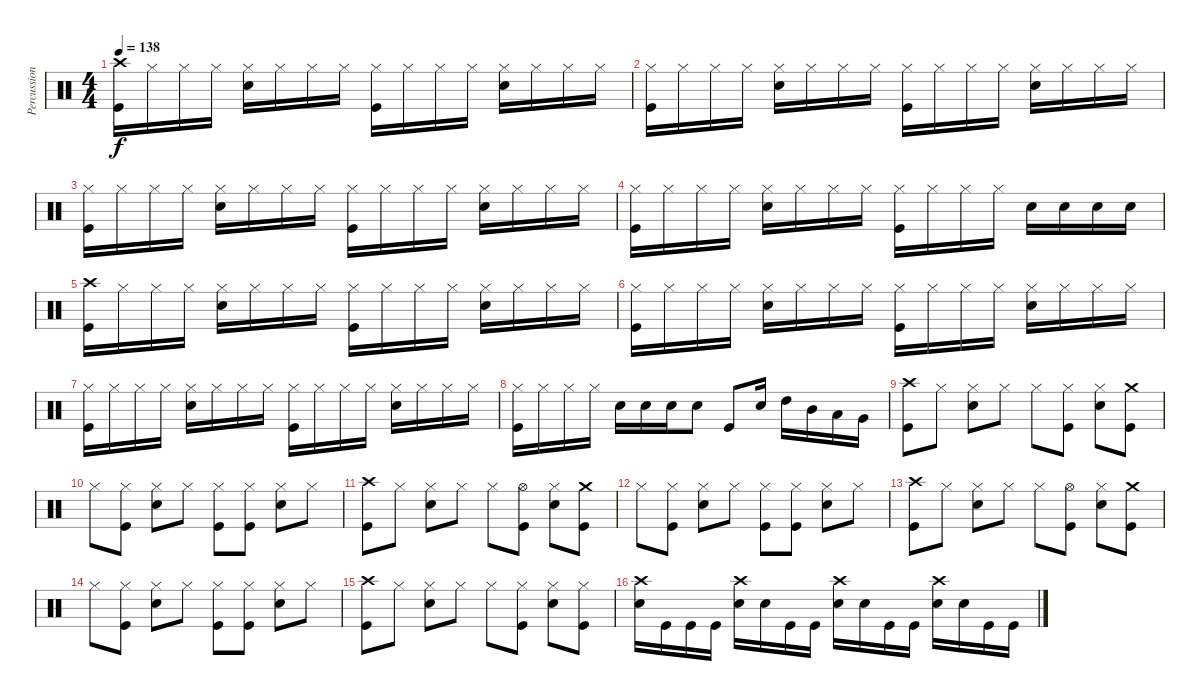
\track ("Percussion" "Percussion") {instrument percussion}
\staff {score}
\articulation defaults
\ts (4 4)
\tempo 138
\clef neutral
\ks c
("Kick (hit)" "Crash high (hit)").16{dy f} "Hi-Hat (closed)".16 "Hi-Hat (closed)".16 "Hi-Hat (closed)".16 ("Snare (hit) 2" "Hi-Hat (closed)").16 "Hi-Hat (closed)".16 "Hi-Hat (closed)".16 "Hi-Hat (closed)".16 ("Kick (hit)" "Hi-Hat (closed)").16 "Hi-Hat (closed)".16 "Hi-Hat (closed)".16 "Hi-Hat (closed)".16 ("Snare (hit) 2" "Hi-Hat (closed)").16 "Hi-Hat (closed)".16 "Hi-Hat (closed)".16 "Hi-Hat (closed)".16 |
("Kick (hit)" "Hi-Hat (closed)").16 "Hi-Hat (closed)".16 "Hi-Hat (closed)".16 "Hi-Hat (closed)".16 ("Snare (hit) 2" "Hi-Hat (closed)").16 "Hi-Hat (closed)".16 "Hi-Hat (closed)".16 "Hi-Hat (closed)".16 ("Kick (hit)" "Hi-Hat (closed)").16 "Hi-Hat (closed)".16 "Hi-Hat (closed)".16 "Hi-Hat (closed)".16 ("Snare (hit) 2" "Hi-Hat (closed)").16 "Hi-Hat (closed)".16 "Hi-Hat (closed)".16 "Hi-Hat (closed)".16 |
("Kick (hit)" "Hi-Hat (closed)").16 "Hi-Hat (closed)".16 "Hi-Hat (closed)".16 "Hi-Hat (closed)".16 ("Snare (hit) 2" "Hi-Hat (closed)").16 "Hi-Hat (closed)".16 "Hi-Hat (closed)".16 "Hi-Hat (closed)".16 ("Kick (hit)" "Hi-Hat (closed)").16 "Hi-Hat (closed)".16 "Hi-Hat (closed)".16 "Hi-Hat (closed)".16 ("Snare (hit) 2" "Hi-Hat (closed)").16 "Hi-Hat (closed)".16 "Hi-Hat (closed)".16 "Hi-Hat (closed)".16 |
("Kick (hit)" "Hi-Hat (closed)").16 "Hi-Hat (closed)".16 "Hi-Hat (closed)".16 "Hi-Hat (closed)".16 ("Snare (hit) 2" "Hi-Hat (closed)").16 "Hi-Hat (closed)".16 "Hi-Hat (closed)".16 "Hi-Hat (closed)".16 ("Kick (hit)" "Hi-Hat (closed)").16 "Hi-Hat (closed)".16 "Hi-Hat (closed)".16 "Hi-Hat (closed)".16 "Snare (hit) 2".16 "Snare (hit) 2".16 "Snare (hit) 2".16 "Snare (hit) 2".16 |
("Kick (hit)" "Crash high (hit)").16 "Hi-Hat (closed)".16 "Hi-Hat (closed)".16 "Hi-Hat (closed)".16 ("Snare (hit) 2" "Hi-Hat (closed)").16 "Hi-Hat (closed)".16 "Hi-Hat (closed)".16 "Hi-Hat (closed)".16 ("Kick (hit)" "Hi-Hat (closed)").16 "Hi-Hat (closed)".16 "Hi-Hat (closed)".16 "Hi-Hat (closed)".16 ("Snare (hit) 2" "Hi-Hat (closed)").16 "Hi-Hat (closed)".16 "Hi-Hat (closed)".16 "Hi-Hat (closed)".16 |
("Kick (hit)" "Hi-Hat (closed)").16 "Hi-Hat (closed)".16 "Hi-Hat (closed)".16 "Hi-Hat (closed)".16 ("Snare (hit) 2" "Hi-Hat (closed)").16 "Hi-Hat (closed)".16 "Hi-Hat (closed)".16 "Hi-Hat (closed)".16 ("Kick (hit)" "Hi-Hat (closed)").16 "Hi-Hat (closed)".16 "Hi-Hat (closed)".16 "Hi-Hat (closed)".16 ("Snare (hit) 2" "Hi-Hat (closed)").16 "Hi-Hat (closed)".16 "Hi-Hat (closed)".16 "Hi-Hat (closed)".16 |
("Kick (hit)" "Hi-Hat (closed)").16 "Hi-Hat (closed)".16 "Hi-Hat (closed)".16 "Hi-Hat (closed)".16 ("Snare (hit) 2" "Hi-Hat (closed)").16 "Hi-Hat (closed)".16 "Hi-Hat (closed)".16 "Hi-Hat (closed)".16 ("Kick (hit)" "Hi-Hat (closed)").16 "Hi-Hat (closed)".16 "Hi-Hat (closed)".16 "Hi-Hat (closed)".16 ("Snare (hit) 2" "Hi-Hat (closed)").16 "Hi-Hat (closed)".16 "Hi-Hat (closed)".16 "Hi-Hat (closed)".16 |
("Kick (hit)" "Hi-Hat (closed)").16 "Hi-Hat (closed)".16 "Hi-Hat (closed)".16 "Hi-Hat (closed)".16 "Snare (hit) 2".16 "Snare (hit) 2".16 "Snare (hit) 2".16 "Snare (hit) 2".8 "Kick (hit)".8 "Snare (hit) 2".16 "High Tom (hit)".16 "Mid Tom (hit)".16 "Low Tom (hit)".16 "Very Low Tom (hit)".16 |
("Kick (hit)" "Crash high (hit)").8 "Hi-Hat (closed)".8 ("Snare (hit) 2" "Hi-Hat (closed)").8 "Hi-Hat (closed)".8 "Hi-Hat (closed)".8 ("Kick (hit)" "Hi-Hat (closed)").8 ("Snare (hit) 2" "Hi-Hat (closed)").8 ("Kick (hit)" "Crash medium (hit)").8 |
"Hi-Hat (closed)".8 ("Hi-Hat (closed)" "Kick (hit)").8 ("Hi-Hat (closed)" "Snare (hit) 2").8 "Hi-Hat (closed)".8 ("Hi-Hat (closed)" "Kick (hit)").8 ("Hi-Hat (closed)" "Kick (hit)").8 ("Snare (hit) 2" "Hi-Hat (closed)").8 "Hi-Hat (closed)".8 |
("Kick (hit)" "Crash high (hit)").8 "Hi-Hat (closed)".8 ("Snare (hit) 2" "Hi-Hat (closed)").8 "Hi-Hat (closed)".8 "Hi-Hat (closed)".8 ("Kick (hit)" "Hi-Hat (open)").8 ("Snare (hit) 2" "Hi-Hat (closed)").8 ("Kick (hit)" "Crash medium (hit)").8 |
"Hi-Hat (closed)".8 ("Hi-Hat (closed)" "Kick (hit)").8 ("Hi-Hat (closed)" "Snare (hit) 2").8 "Hi-Hat (closed)".8 ("Hi-Hat (closed)" "Kick (hit)").8 ("Hi-Hat (closed)" "Kick (hit)").8 ("Snare (hit) 2" "Hi-Hat (closed)").8 "Hi-Hat (closed)".8 |
("Kick (hit)" "Crash high (hit)").8 "Hi-Hat (closed)".8 ("Snare (hit) 2" "Hi-Hat (closed)").8 "Hi-Hat (closed)".8 "Hi-Hat (closed)".8 ("Kick (hit)" "Hi-Hat (open)").8 ("Snare (hit) 2" "Hi-Hat (closed)").8 ("Kick (hit)" "Crash medium (hit)").8 |
"Hi-Hat (closed)".8 ("Hi-Hat (closed)" "Kick (hit)").8 ("Hi-Hat (closed)" "Snare (hit) 2").8 "Hi-Hat (closed)".8 ("Hi-Hat (closed)" "Kick (hit)").8 ("Hi-Hat (closed)" "Kick (hit)").8 ("Snare (hit) 2" "Hi-Hat (closed)").8 "Hi-Hat (closed)".8 |
("Kick (hit)" "Crash high (hit)").8 "Hi-Hat (closed)".8 ("Snare (hit) 2" "Hi-Hat (closed)").8 "Hi-Hat (closed)".8 "Hi-Hat (closed)".8 ("Kick (hit)" "Hi-Hat (closed)").8 ("Snare (hit) 2" "Hi-Hat (closed)").8 ("Kick (hit)" "Hi-Hat (closed)").8 |
("Snare (hit) 2" "Crash high (hit)").16 "Kick (hit)".16 "Kick (hit)".16 "Kick (hit)".16 ("Snare (hit) 2" "Crash high (hit)").16 "Snare (hit) 2".16 "Kick (hit)".16 "Kick (hit)".16 ("Snare (hit) 2" "Crash high (hit)").16 "Snare (hit) 2".16 "Kick (hit)".16 "Kick (hit)".16 ("Snare (hit) 2" "Crash high (hit)").16 "Snare (hit) 2".16 "Kick (hit)".16 "Kick (hit)".16
